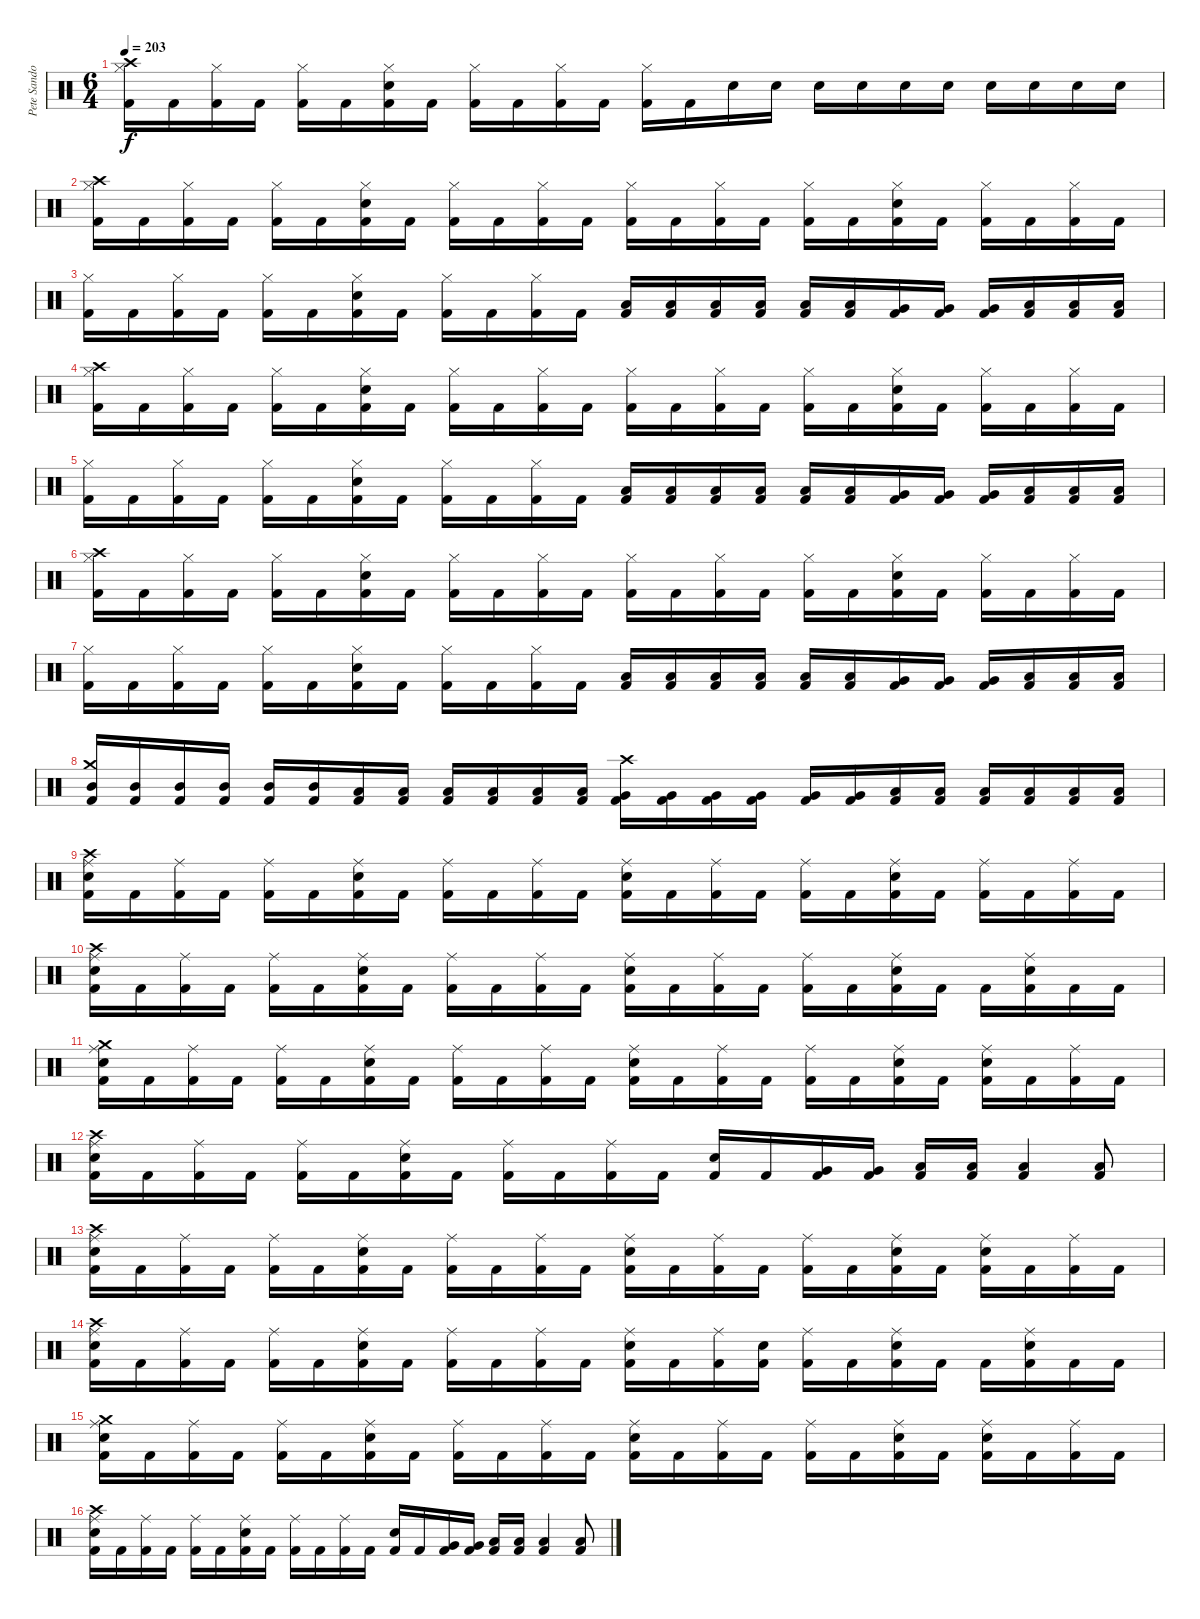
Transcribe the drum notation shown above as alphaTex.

\track ("Pete Sandoval" "Pete Sando") {instrument percussion}
\staff {score}
\articulation defaults
\ts (6 4)
\tempo 203
\clef neutral
\ks c
("Crash high (hit)" "Hi-Hat (closed)" "Kick (hit) 2").16{dy f} "Kick (hit) 2".16 ("Hi-Hat (closed)" "Kick (hit) 2").16 "Kick (hit) 2".16 ("Hi-Hat (closed)" "Kick (hit) 2").16 "Kick (hit) 2".16 ("Electric Snare (hit)" "Hi-Hat (closed)" "Kick (hit) 2").16 "Kick (hit) 2".16 ("Hi-Hat (closed)" "Kick (hit) 2").16 "Kick (hit) 2".16 ("Hi-Hat (closed)" "Kick (hit) 2").16 "Kick (hit) 2".16 ("Hi-Hat (closed)" "Kick (hit) 2").16 "Kick (hit) 2".16 "Electric Snare (hit)".16 "Electric Snare (hit)".16 "Electric Snare (hit)".16 "Electric Snare (hit)".16 "Electric Snare (hit)".16 "Electric Snare (hit)".16 "Electric Snare (hit)".16 "Electric Snare (hit)".16 "Electric Snare (hit)".16 "Electric Snare (hit)".16 |
("Crash high (hit)" "Hi-Hat (closed)" "Kick (hit) 2").16 "Kick (hit) 2".16 ("Hi-Hat (closed)" "Kick (hit) 2").16 "Kick (hit) 2".16 ("Hi-Hat (closed)" "Kick (hit) 2").16 "Kick (hit) 2".16 ("Electric Snare (hit)" "Hi-Hat (closed)" "Kick (hit) 2").16 "Kick (hit) 2".16 ("Hi-Hat (closed)" "Kick (hit) 2").16 "Kick (hit) 2".16 ("Hi-Hat (closed)" "Kick (hit) 2").16 "Kick (hit) 2".16 ("Hi-Hat (closed)" "Kick (hit) 2").16 "Kick (hit) 2".16 ("Hi-Hat (closed)" "Kick (hit) 2").16 "Kick (hit) 2".16 ("Hi-Hat (closed)" "Kick (hit) 2").16 "Kick (hit) 2".16 ("Electric Snare (hit)" "Hi-Hat (closed)" "Kick (hit) 2").16 "Kick (hit) 2".16 ("Hi-Hat (closed)" "Kick (hit) 2").16 "Kick (hit) 2".16 ("Hi-Hat (closed)" "Kick (hit) 2").16 "Kick (hit) 2".16 |
("Hi-Hat (closed)" "Kick (hit) 2").16 "Kick (hit) 2".16 ("Hi-Hat (closed)" "Kick (hit) 2").16 "Kick (hit) 2".16 ("Hi-Hat (closed)" "Kick (hit) 2").16 "Kick (hit) 2".16 ("Electric Snare (hit)" "Hi-Hat (closed)" "Kick (hit) 2").16 "Kick (hit) 2".16 ("Hi-Hat (closed)" "Kick (hit) 2").16 "Kick (hit) 2".16 ("Hi-Hat (closed)" "Kick (hit) 2").16 "Kick (hit) 2".16 ("Low Tom (hit)" "Kick (hit) 2").16 ("Low Tom (hit)" "Kick (hit) 2").16 ("Low Tom (hit)" "Kick (hit) 2").16 ("Low Tom (hit)" "Kick (hit) 2").16 ("Low Tom (hit)" "Kick (hit) 2").16 ("Low Tom (hit)" "Kick (hit) 2").16 ("Very Low Tom (hit)" "Kick (hit) 2").16 ("Very Low Tom (hit)" "Kick (hit) 2").16 ("Very Low Tom (hit)" "Kick (hit) 2").16 ("Low Floor Tom (hit)" "Kick (hit) 2").16 ("Low Floor Tom (hit)" "Kick (hit) 2").16 ("Low Floor Tom (hit)" "Kick (hit) 2").16 |
("Crash high (hit)" "Hi-Hat (closed)" "Kick (hit) 2").16 "Kick (hit) 2".16 ("Hi-Hat (closed)" "Kick (hit) 2").16 "Kick (hit) 2".16 ("Hi-Hat (closed)" "Kick (hit) 2").16 "Kick (hit) 2".16 ("Electric Snare (hit)" "Hi-Hat (closed)" "Kick (hit) 2").16 "Kick (hit) 2".16 ("Hi-Hat (closed)" "Kick (hit) 2").16 "Kick (hit) 2".16 ("Hi-Hat (closed)" "Kick (hit) 2").16 "Kick (hit) 2".16 ("Hi-Hat (closed)" "Kick (hit) 2").16 "Kick (hit) 2".16 ("Hi-Hat (closed)" "Kick (hit) 2").16 "Kick (hit) 2".16 ("Hi-Hat (closed)" "Kick (hit) 2").16 "Kick (hit) 2".16 ("Electric Snare (hit)" "Hi-Hat (closed)" "Kick (hit) 2").16 "Kick (hit) 2".16 ("Hi-Hat (closed)" "Kick (hit) 2").16 "Kick (hit) 2".16 ("Hi-Hat (closed)" "Kick (hit) 2").16 "Kick (hit) 2".16 |
("Hi-Hat (closed)" "Kick (hit) 2").16 "Kick (hit) 2".16 ("Hi-Hat (closed)" "Kick (hit) 2").16 "Kick (hit) 2".16 ("Hi-Hat (closed)" "Kick (hit) 2").16 "Kick (hit) 2".16 ("Electric Snare (hit)" "Hi-Hat (closed)" "Kick (hit) 2").16 "Kick (hit) 2".16 ("Hi-Hat (closed)" "Kick (hit) 2").16 "Kick (hit) 2".16 ("Hi-Hat (closed)" "Kick (hit) 2").16 "Kick (hit) 2".16 ("Low Tom (hit)" "Kick (hit) 2").16 ("Low Tom (hit)" "Kick (hit) 2").16 ("Low Tom (hit)" "Kick (hit) 2").16 ("Low Tom (hit)" "Kick (hit) 2").16 ("Low Tom (hit)" "Kick (hit) 2").16 ("Low Tom (hit)" "Kick (hit) 2").16 ("Very Low Tom (hit)" "Kick (hit) 2").16 ("Very Low Tom (hit)" "Kick (hit) 2").16 ("Very Low Tom (hit)" "Kick (hit) 2").16 ("Low Floor Tom (hit)" "Kick (hit) 2").16 ("Low Floor Tom (hit)" "Kick (hit) 2").16 ("Low Floor Tom (hit)" "Kick (hit) 2").16 |
("Crash high (hit)" "Hi-Hat (closed)" "Kick (hit) 2").16 "Kick (hit) 2".16 ("Hi-Hat (closed)" "Kick (hit) 2").16 "Kick (hit) 2".16 ("Hi-Hat (closed)" "Kick (hit) 2").16 "Kick (hit) 2".16 ("Electric Snare (hit)" "Hi-Hat (closed)" "Kick (hit) 2").16 "Kick (hit) 2".16 ("Hi-Hat (closed)" "Kick (hit) 2").16 "Kick (hit) 2".16 ("Hi-Hat (closed)" "Kick (hit) 2").16 "Kick (hit) 2".16 ("Hi-Hat (closed)" "Kick (hit) 2").16 "Kick (hit) 2".16 ("Hi-Hat (closed)" "Kick (hit) 2").16 "Kick (hit) 2".16 ("Hi-Hat (closed)" "Kick (hit) 2").16 "Kick (hit) 2".16 ("Electric Snare (hit)" "Hi-Hat (closed)" "Kick (hit) 2").16 "Kick (hit) 2".16 ("Hi-Hat (closed)" "Kick (hit) 2").16 "Kick (hit) 2".16 ("Hi-Hat (closed)" "Kick (hit) 2").16 "Kick (hit) 2".16 |
("Hi-Hat (closed)" "Kick (hit) 2").16 "Kick (hit) 2".16 ("Hi-Hat (closed)" "Kick (hit) 2").16 "Kick (hit) 2".16 ("Hi-Hat (closed)" "Kick (hit) 2").16 "Kick (hit) 2".16 ("Electric Snare (hit)" "Hi-Hat (closed)" "Kick (hit) 2").16 "Kick (hit) 2".16 ("Hi-Hat (closed)" "Kick (hit) 2").16 "Kick (hit) 2".16 ("Hi-Hat (closed)" "Kick (hit) 2").16 "Kick (hit) 2".16 ("Low Tom (hit)" "Kick (hit) 2").16 ("Low Tom (hit)" "Kick (hit) 2").16 ("Low Tom (hit)" "Kick (hit) 2").16 ("Low Tom (hit)" "Kick (hit) 2").16 ("Low Tom (hit)" "Kick (hit) 2").16 ("Low Tom (hit)" "Kick (hit) 2").16 ("Very Low Tom (hit)" "Kick (hit) 2").16 ("Very Low Tom (hit)" "Kick (hit) 2").16 ("Very Low Tom (hit)" "Kick (hit) 2").16 ("Low Floor Tom (hit)" "Kick (hit) 2").16 ("Low Floor Tom (hit)" "Kick (hit) 2").16 ("Low Floor Tom (hit)" "Kick (hit) 2").16 |
("Crash medium (hit)" "Mid Tom (hit)" "Kick (hit) 2").16 ("Mid Tom (hit)" "Kick (hit) 2").16 ("Mid Tom (hit)" "Kick (hit) 2").16 ("Mid Tom (hit)" "Kick (hit) 2").16 ("Mid Tom (hit)" "Kick (hit) 2").16 ("Mid Tom (hit)" "Kick (hit) 2").16 ("Low Tom (hit)" "Kick (hit) 2").16 ("Low Tom (hit)" "Kick (hit) 2").16 ("Low Tom (hit)" "Kick (hit) 2").16 ("Low Tom (hit)" "Kick (hit) 2").16 ("Low Tom (hit)" "Kick (hit) 2").16 ("Low Tom (hit)" "Kick (hit) 2").16 ("Crash high (hit)" "Very Low Tom (hit)" "Kick (hit) 2").16 ("Very Low Tom (hit)" "Kick (hit) 2").16 ("Very Low Tom (hit)" "Kick (hit) 2").16 ("Very Low Tom (hit)" "Kick (hit) 2").16 ("Very Low Tom (hit)" "Kick (hit) 2").16 ("Very Low Tom (hit)" "Kick (hit) 2").16 ("Low Floor Tom (hit)" "Kick (hit) 2").16 ("Low Floor Tom (hit)" "Kick (hit) 2").16 ("Low Floor Tom (hit)" "Kick (hit) 2").16 ("Low Floor Tom (hit)" "Kick (hit) 2").16 ("Low Floor Tom (hit)" "Kick (hit) 2").16 ("Low Floor Tom (hit)" "Kick (hit) 2").16 |
("Crash high (hit)" "Electric Snare (hit)" "Ride (middle)" "Kick (hit) 2").16 "Kick (hit) 2".16 ("Ride (middle)" "Kick (hit) 2").16 "Kick (hit) 2".16 ("Ride (middle)" "Kick (hit) 2").16 "Kick (hit) 2".16 ("Electric Snare (hit)" "Ride (middle)" "Kick (hit) 2").16 "Kick (hit) 2".16 ("Ride (middle)" "Kick (hit) 2").16 "Kick (hit) 2".16 ("Ride (middle)" "Kick (hit) 2").16 "Kick (hit) 2".16 ("Electric Snare (hit)" "Ride (middle)" "Kick (hit) 2").16 "Kick (hit) 2".16 ("Ride (middle)" "Kick (hit) 2").16 "Kick (hit) 2".16 ("Ride (middle)" "Kick (hit) 2").16 "Kick (hit) 2".16 ("Electric Snare (hit)" "Ride (middle)" "Kick (hit) 2").16 "Kick (hit) 2".16 ("Ride (middle)" "Kick (hit) 2").16 "Kick (hit) 2".16 ("Ride (middle)" "Kick (hit) 2").16 "Kick (hit) 2".16 |
("Crash high (hit)" "Electric Snare (hit)" "Ride (middle)" "Kick (hit) 2").16 "Kick (hit) 2".16 ("Ride (middle)" "Kick (hit) 2").16 "Kick (hit) 2".16 ("Ride (middle)" "Kick (hit) 2").16 "Kick (hit) 2".16 ("Electric Snare (hit)" "Ride (middle)" "Kick (hit) 2").16 "Kick (hit) 2".16 ("Ride (middle)" "Kick (hit) 2").16 "Kick (hit) 2".16 ("Ride (middle)" "Kick (hit) 2").16 "Kick (hit) 2".16 ("Electric Snare (hit)" "Ride (middle)" "Kick (hit) 2").16 "Kick (hit) 2".16 ("Ride (middle)" "Kick (hit) 2").16 "Kick (hit) 2".16 ("Ride (middle)" "Kick (hit) 2").16 "Kick (hit) 2".16 ("Electric Snare (hit)" "Ride (middle)" "Kick (hit) 2").16 "Kick (hit) 2".16 "Kick (hit) 2".16 ("Electric Snare (hit)" "Ride (middle)" "Kick (hit) 2").16 "Kick (hit) 2".16 "Kick (hit) 2".16 |
("Crash medium (hit)" "Electric Snare (hit)" "Ride (middle)" "Kick (hit) 2").16 "Kick (hit) 2".16 ("Ride (middle)" "Kick (hit) 2").16 "Kick (hit) 2".16 ("Ride (middle)" "Kick (hit) 2").16 "Kick (hit) 2".16 ("Electric Snare (hit)" "Ride (middle)" "Kick (hit) 2").16 "Kick (hit) 2".16 ("Ride (middle)" "Kick (hit) 2").16 "Kick (hit) 2".16 ("Ride (middle)" "Kick (hit) 2").16 "Kick (hit) 2".16 ("Electric Snare (hit)" "Ride (middle)" "Kick (hit) 2").16 "Kick (hit) 2".16 ("Ride (middle)" "Kick (hit) 2").16 "Kick (hit) 2".16 ("Ride (middle)" "Kick (hit) 2").16 "Kick (hit) 2".16 ("Electric Snare (hit)" "Ride (middle)" "Kick (hit) 2").16 "Kick (hit) 2".16 ("Electric Snare (hit)" "Ride (middle)" "Kick (hit) 2").16 "Kick (hit) 2".16 ("Ride (middle)" "Kick (hit) 2").16 "Kick (hit) 2".16 |
("Crash high (hit)" "Electric Snare (hit)" "Ride (middle)" "Kick (hit) 2").16 "Kick (hit) 2".16 ("Ride (middle)" "Kick (hit) 2").16 "Kick (hit) 2".16 ("Ride (middle)" "Kick (hit) 2").16 "Kick (hit) 2".16 ("Electric Snare (hit)" "Ride (middle)" "Kick (hit) 2").16 "Kick (hit) 2".16 ("Ride (middle)" "Kick (hit) 2").16 "Kick (hit) 2".16 ("Ride (middle)" "Kick (hit) 2").16 "Kick (hit) 2".16 ("Electric Snare (hit)" "Kick (hit) 2").16 "Kick (hit) 2".16 ("Very Low Tom (hit)" "Kick (hit) 2").16 ("Very Low Tom (hit)" "Kick (hit) 2").16 ("Low Floor Tom (hit)" "Kick (hit) 2").16 ("Low Floor Tom (hit)" "Kick (hit) 2").16 ("Low Floor Tom (hit)" "Kick (hit) 2").4 ("Low Floor Tom (hit)" "Kick (hit) 2").8 |
("Crash high (hit)" "Electric Snare (hit)" "Ride (middle)" "Kick (hit) 2").16 "Kick (hit) 2".16 ("Ride (middle)" "Kick (hit) 2").16 "Kick (hit) 2".16 ("Ride (middle)" "Kick (hit) 2").16 "Kick (hit) 2".16 ("Electric Snare (hit)" "Ride (middle)" "Kick (hit) 2").16 "Kick (hit) 2".16 ("Ride (middle)" "Kick (hit) 2").16 "Kick (hit) 2".16 ("Ride (middle)" "Kick (hit) 2").16 "Kick (hit) 2".16 ("Electric Snare (hit)" "Ride (middle)" "Kick (hit) 2").16 "Kick (hit) 2".16 ("Ride (middle)" "Kick (hit) 2").16 "Kick (hit) 2".16 ("Ride (middle)" "Kick (hit) 2").16 "Kick (hit) 2".16 ("Electric Snare (hit)" "Ride (middle)" "Kick (hit) 2").16 "Kick (hit) 2".16 ("Electric Snare (hit)" "Ride (middle)" "Kick (hit) 2").16 "Kick (hit) 2".16 ("Ride (middle)" "Kick (hit) 2").16 "Kick (hit) 2".16 |
("Crash high (hit)" "Electric Snare (hit)" "Ride (middle)" "Kick (hit) 2").16 "Kick (hit) 2".16 ("Ride (middle)" "Kick (hit) 2").16 "Kick (hit) 2".16 ("Ride (middle)" "Kick (hit) 2").16 "Kick (hit) 2".16 ("Electric Snare (hit)" "Ride (middle)" "Kick (hit) 2").16 "Kick (hit) 2".16 ("Ride (middle)" "Kick (hit) 2").16 "Kick (hit) 2".16 ("Ride (middle)" "Kick (hit) 2").16 "Kick (hit) 2".16 ("Electric Snare (hit)" "Ride (middle)" "Kick (hit) 2").16 "Kick (hit) 2".16 ("Ride (middle)" "Kick (hit) 2").16 ("Electric Snare (hit)" "Kick (hit) 2").16 ("Ride (middle)" "Kick (hit) 2").16 "Kick (hit) 2".16 ("Electric Snare (hit)" "Ride (middle)" "Kick (hit) 2").16 "Kick (hit) 2".16 "Kick (hit) 2".16 ("Electric Snare (hit)" "Ride (middle)" "Kick (hit) 2").16 "Kick (hit) 2".16 "Kick (hit) 2".16 |
("Crash medium (hit)" "Electric Snare (hit)" "Ride (middle)" "Kick (hit) 2").16 "Kick (hit) 2".16 ("Ride (middle)" "Kick (hit) 2").16 "Kick (hit) 2".16 ("Ride (middle)" "Kick (hit) 2").16 "Kick (hit) 2".16 ("Electric Snare (hit)" "Ride (middle)" "Kick (hit) 2").16 "Kick (hit) 2".16 ("Ride (middle)" "Kick (hit) 2").16 "Kick (hit) 2".16 ("Ride (middle)" "Kick (hit) 2").16 "Kick (hit) 2".16 ("Electric Snare (hit)" "Ride (middle)" "Kick (hit) 2").16 "Kick (hit) 2".16 ("Ride (middle)" "Kick (hit) 2").16 "Kick (hit) 2".16 ("Ride (middle)" "Kick (hit) 2").16 "Kick (hit) 2".16 ("Electric Snare (hit)" "Ride (middle)" "Kick (hit) 2").16 "Kick (hit) 2".16 ("Electric Snare (hit)" "Ride (middle)" "Kick (hit) 2").16 "Kick (hit) 2".16 ("Ride (middle)" "Kick (hit) 2").16 "Kick (hit) 2".16 |
("Crash high (hit)" "Electric Snare (hit)" "Ride (middle)" "Kick (hit) 2").16 "Kick (hit) 2".16 ("Ride (middle)" "Kick (hit) 2").16 "Kick (hit) 2".16 ("Ride (middle)" "Kick (hit) 2").16 "Kick (hit) 2".16 ("Electric Snare (hit)" "Ride (middle)" "Kick (hit) 2").16 "Kick (hit) 2".16 ("Ride (middle)" "Kick (hit) 2").16 "Kick (hit) 2".16 ("Ride (middle)" "Kick (hit) 2").16 "Kick (hit) 2".16 ("Electric Snare (hit)" "Kick (hit) 2").16 "Kick (hit) 2".16 ("Very Low Tom (hit)" "Kick (hit) 2").16 ("Very Low Tom (hit)" "Kick (hit) 2").16 ("Low Floor Tom (hit)" "Kick (hit) 2").16 ("Low Floor Tom (hit)" "Kick (hit) 2").16 ("Low Floor Tom (hit)" "Kick (hit) 2").4 ("Low Floor Tom (hit)" "Kick (hit) 2").8
